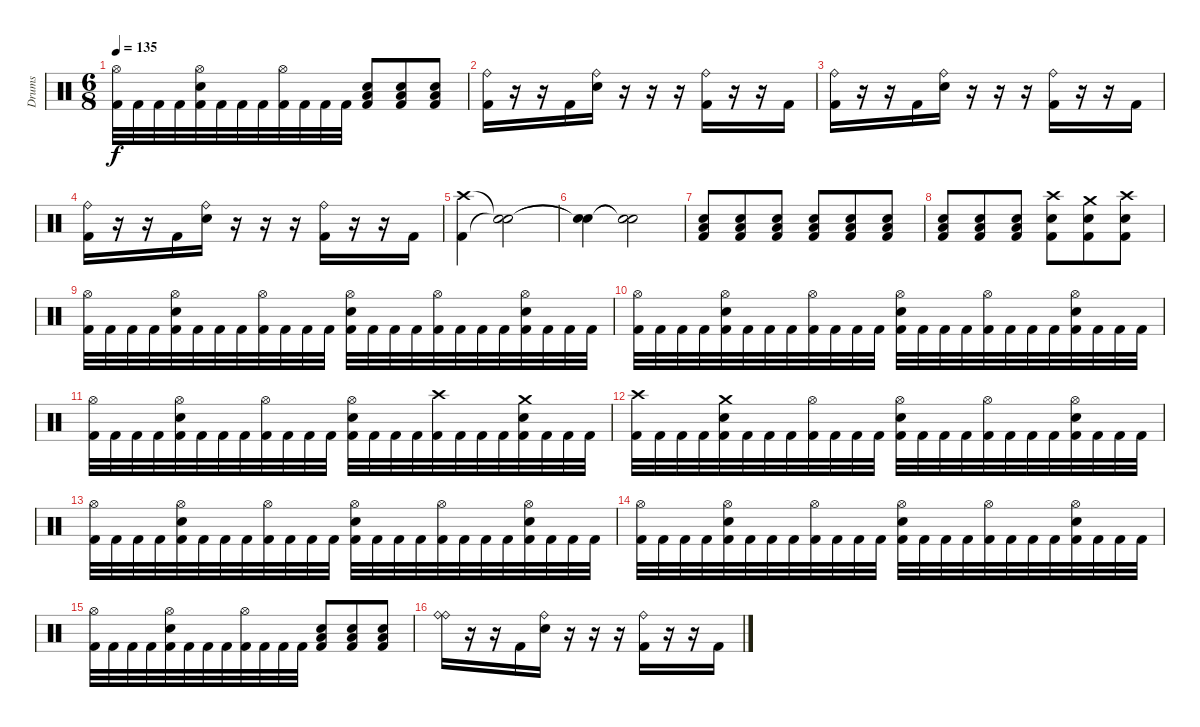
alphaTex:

\track ("Drums" "Drums") {instrument percussion}
\staff {score}
\articulation defaults
\ts (6 8)
\tempo 135
\clef neutral
\ks c
("Hi-Hat (open)" "Kick (hit) 2").32{dy f} "Kick (hit) 2".32 "Kick (hit) 2".32 "Kick (hit) 2".32 ("Hi-Hat (open)" "Electric Snare (hit)" "Kick (hit) 2").32 "Kick (hit) 2".32 "Kick (hit) 2".32 "Kick (hit) 2".32 ("Hi-Hat (open)" "Kick (hit) 2").32 "Kick (hit) 2".32 "Kick (hit) 2".32 "Kick (hit) 2".32 ("Electric Snare (hit)" "Low Floor Tom (hit)" "Kick (hit) 2").8 ("Electric Snare (hit)" "Low Floor Tom (hit)" "Kick (hit) 2").8 ("Electric Snare (hit)" "Low Floor Tom (hit)" "Kick (hit) 2").8 |
("Kick (hit) 2" "Ride (bell)").16 r.16 r.16 "Kick (hit) 2".16 ("Electric Snare (hit)" "Ride (bell)").16 r.16 r.16 r.16 ("Kick (hit) 2" "Ride (bell)").16 r.16 r.16 "Kick (hit) 2".16 |
("Kick (hit) 2" "Ride (bell)").16 r.16 r.16 "Kick (hit) 2".16 ("Electric Snare (hit)" "Ride (bell)").16 r.16 r.16 r.16 ("Kick (hit) 2" "Ride (bell)").16 r.16 r.16 "Kick (hit) 2".16 |
("Kick (hit) 2" "Ride (bell)").16 r.16 r.16 "Kick (hit) 2".16 ("Electric Snare (hit)" "Ride (bell)").16 r.16 r.16 r.16 ("Kick (hit) 2" "Ride (bell)").16 r.16 r.16 "Kick (hit) 2".16 |
("Crash high (hit)" "Kick (hit) 2").4 ("Snare (hit)"{t} "Snare (hit)"{t}).2 |
("Snare (hit)"{t} "Snare (hit)"{t}).4 ("Snare (hit)"{t} "Snare (hit)"{t}).2 |
("Low Floor Tom (hit)" "Electric Snare (hit)" "Kick (hit) 2").8{volume 2} ("Low Floor Tom (hit)" "Electric Snare (hit)" "Kick (hit) 2").8{volume 4} ("Low Floor Tom (hit)" "Electric Snare (hit)" "Kick (hit) 2").8{volume 6} ("Low Floor Tom (hit)" "Electric Snare (hit)" "Kick (hit) 2").8{volume 8} ("Low Floor Tom (hit)" "Electric Snare (hit)" "Kick (hit) 2").8{volume 10} ("Low Floor Tom (hit)" "Electric Snare (hit)" "Kick (hit) 2").8{volume 12} |
("Low Floor Tom (hit)" "Electric Snare (hit)" "Kick (hit) 2").8{volume 14} ("Low Floor Tom (hit)" "Electric Snare (hit)" "Kick (hit) 2").8{volume 16} ("Low Floor Tom (hit)" "Electric Snare (hit)" "Kick (hit) 2").8 ("Crash high (hit)" "Electric Snare (hit)" "Kick (hit) 2").8 ("Crash medium (hit)" "Electric Snare (hit)" "Kick (hit) 2").8 ("Crash high (hit)" "Electric Snare (hit)" "Kick (hit) 2").8 |
("Hi-Hat (open)" "Kick (hit) 2").32 "Kick (hit) 2".32 "Kick (hit) 2".32 "Kick (hit) 2".32 ("Hi-Hat (open)" "Electric Snare (hit)" "Kick (hit) 2").32 "Kick (hit) 2".32 "Kick (hit) 2".32 "Kick (hit) 2".32 ("Hi-Hat (open)" "Kick (hit) 2").32 "Kick (hit) 2".32 "Kick (hit) 2".32 "Kick (hit) 2".32 ("Hi-Hat (open)" "Electric Snare (hit)" "Kick (hit) 2").32 "Kick (hit) 2".32 "Kick (hit) 2".32 "Kick (hit) 2".32 ("Hi-Hat (open)" "Kick (hit) 2").32 "Kick (hit) 2".32 "Kick (hit) 2".32 "Kick (hit) 2".32 ("Hi-Hat (open)" "Electric Snare (hit)" "Kick (hit) 2").32 "Kick (hit) 2".32 "Kick (hit) 2".32 "Kick (hit) 2".32 |
("Hi-Hat (open)" "Kick (hit) 2").32 "Kick (hit) 2".32 "Kick (hit) 2".32 "Kick (hit) 2".32 ("Hi-Hat (open)" "Electric Snare (hit)" "Kick (hit) 2").32 "Kick (hit) 2".32 "Kick (hit) 2".32 "Kick (hit) 2".32 ("Hi-Hat (open)" "Kick (hit) 2").32 "Kick (hit) 2".32 "Kick (hit) 2".32 "Kick (hit) 2".32 ("Hi-Hat (open)" "Electric Snare (hit)" "Kick (hit) 2").32 "Kick (hit) 2".32 "Kick (hit) 2".32 "Kick (hit) 2".32 ("Hi-Hat (open)" "Kick (hit) 2").32 "Kick (hit) 2".32 "Kick (hit) 2".32 "Kick (hit) 2".32 ("Hi-Hat (open)" "Electric Snare (hit)" "Kick (hit) 2").32 "Kick (hit) 2".32 "Kick (hit) 2".32 "Kick (hit) 2".32 |
("Hi-Hat (open)" "Kick (hit) 2").32 "Kick (hit) 2".32 "Kick (hit) 2".32 "Kick (hit) 2".32 ("Hi-Hat (open)" "Electric Snare (hit)" "Kick (hit) 2").32 "Kick (hit) 2".32 "Kick (hit) 2".32 "Kick (hit) 2".32 ("Hi-Hat (open)" "Kick (hit) 2").32 "Kick (hit) 2".32 "Kick (hit) 2".32 "Kick (hit) 2".32 ("Hi-Hat (open)" "Electric Snare (hit)" "Kick (hit) 2").32 "Kick (hit) 2".32 "Kick (hit) 2".32 "Kick (hit) 2".32 ("Crash high (hit)" "Kick (hit) 2").32 "Kick (hit) 2".32 "Kick (hit) 2".32 "Kick (hit) 2".32 ("Crash medium (hit)" "Electric Snare (hit)" "Kick (hit) 2").32 "Kick (hit) 2".32 "Kick (hit) 2".32 "Kick (hit) 2".32 |
("Crash high (hit)" "Kick (hit) 2").32 "Kick (hit) 2".32 "Kick (hit) 2".32 "Kick (hit) 2".32 ("Crash medium (hit)" "Electric Snare (hit)" "Kick (hit) 2").32 "Kick (hit) 2".32 "Kick (hit) 2".32 "Kick (hit) 2".32 ("Hi-Hat (open)" "Kick (hit) 2").32 "Kick (hit) 2".32 "Kick (hit) 2".32 "Kick (hit) 2".32 ("Hi-Hat (open)" "Electric Snare (hit)" "Kick (hit) 2").32 "Kick (hit) 2".32 "Kick (hit) 2".32 "Kick (hit) 2".32 ("Hi-Hat (open)" "Kick (hit) 2").32 "Kick (hit) 2".32 "Kick (hit) 2".32 "Kick (hit) 2".32 ("Hi-Hat (open)" "Electric Snare (hit)" "Kick (hit) 2").32 "Kick (hit) 2".32 "Kick (hit) 2".32 "Kick (hit) 2".32 |
("Hi-Hat (open)" "Kick (hit) 2").32 "Kick (hit) 2".32 "Kick (hit) 2".32 "Kick (hit) 2".32 ("Hi-Hat (open)" "Electric Snare (hit)" "Kick (hit) 2").32 "Kick (hit) 2".32 "Kick (hit) 2".32 "Kick (hit) 2".32 ("Hi-Hat (open)" "Kick (hit) 2").32 "Kick (hit) 2".32 "Kick (hit) 2".32 "Kick (hit) 2".32 ("Hi-Hat (open)" "Electric Snare (hit)" "Kick (hit) 2").32 "Kick (hit) 2".32 "Kick (hit) 2".32 "Kick (hit) 2".32 ("Hi-Hat (open)" "Kick (hit) 2").32 "Kick (hit) 2".32 "Kick (hit) 2".32 "Kick (hit) 2".32 ("Hi-Hat (open)" "Electric Snare (hit)" "Kick (hit) 2").32 "Kick (hit) 2".32 "Kick (hit) 2".32 "Kick (hit) 2".32 |
("Hi-Hat (open)" "Kick (hit) 2").32 "Kick (hit) 2".32 "Kick (hit) 2".32 "Kick (hit) 2".32 ("Hi-Hat (open)" "Electric Snare (hit)" "Kick (hit) 2").32 "Kick (hit) 2".32 "Kick (hit) 2".32 "Kick (hit) 2".32 ("Hi-Hat (open)" "Kick (hit) 2").32 "Kick (hit) 2".32 "Kick (hit) 2".32 "Kick (hit) 2".32 ("Hi-Hat (open)" "Electric Snare (hit)" "Kick (hit) 2").32 "Kick (hit) 2".32 "Kick (hit) 2".32 "Kick (hit) 2".32 ("Hi-Hat (open)" "Kick (hit) 2").32 "Kick (hit) 2".32 "Kick (hit) 2".32 "Kick (hit) 2".32 ("Hi-Hat (open)" "Electric Snare (hit)" "Kick (hit) 2").32 "Kick (hit) 2".32 "Kick (hit) 2".32 "Kick (hit) 2".32 |
("Hi-Hat (open)" "Kick (hit) 2").32 "Kick (hit) 2".32 "Kick (hit) 2".32 "Kick (hit) 2".32 ("Hi-Hat (open)" "Electric Snare (hit)" "Kick (hit) 2").32 "Kick (hit) 2".32 "Kick (hit) 2".32 "Kick (hit) 2".32 ("Hi-Hat (open)" "Kick (hit) 2").32 "Kick (hit) 2".32 "Kick (hit) 2".32 "Kick (hit) 2".32 ("Electric Snare (hit)" "Low Floor Tom (hit)" "Kick (hit) 2").8 ("Electric Snare (hit)" "Low Floor Tom (hit)" "Kick (hit) 2").8 ("Electric Snare (hit)" "Low Floor Tom (hit)" "Kick (hit) 2").8 |
("Ride (bell)" "Ride (bell)").16 r.16 r.16 "Kick (hit) 2".16 ("Electric Snare (hit)" "Ride (bell)").16 r.16 r.16 r.16 ("Kick (hit) 2" "Ride (bell)").16 r.16 r.16 "Kick (hit) 2".16
